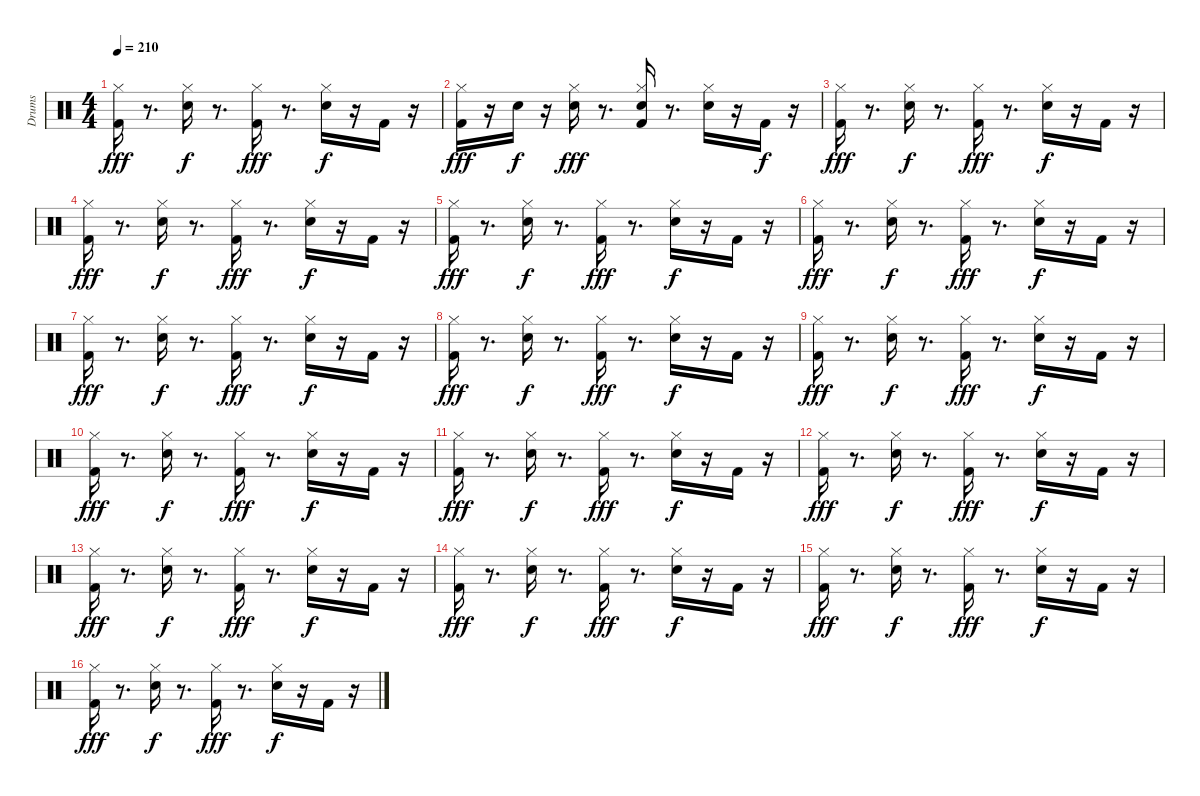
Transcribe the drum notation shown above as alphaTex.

\track ("Drums " "Drums ") {instrument percussion}
\staff {score}
\articulation defaults
\ts (4 4)
\tempo 210
\clef neutral
\ks c
("Kick (hit) 2" "Hi-Hat (closed)").16{dy fff} r.8{d} ("Snare (hit) 2" "Hi-Hat (closed)").16{dy f} r.8{d} ("Kick (hit) 2" "Hi-Hat (closed)").16{dy fff} r.8{d} ("Snare (hit) 2" "Hi-Hat (closed)").16{dy f} r.16 "Kick (hit) 2".16 r.16 |
("Kick (hit) 2" "Hi-Hat (closed)").16{dy fff} r.16 "Snare (hit) 2".16{dy f} r.16 ("Snare (hit) 2" "Hi-Hat (closed)").16{dy fff} r.8{d} ("Kick (hit) 2" "Snare (hit) 2" "Hi-Hat (closed)").16 r.8{d} ("Snare (hit) 2" "Hi-Hat (closed)").16 r.16 "Kick (hit) 2".16{dy f} r.16 |
("Kick (hit) 2" "Hi-Hat (closed)").16{dy fff} r.8{d} ("Snare (hit) 2" "Hi-Hat (closed)").16{dy f} r.8{d} ("Kick (hit) 2" "Hi-Hat (closed)").16{dy fff} r.8{d} ("Snare (hit) 2" "Hi-Hat (closed)").16{dy f} r.16 "Kick (hit) 2".16 r.16 |
("Kick (hit) 2" "Hi-Hat (closed)").16{dy fff} r.8{d} ("Snare (hit) 2" "Hi-Hat (closed)").16{dy f} r.8{d} ("Kick (hit) 2" "Hi-Hat (closed)").16{dy fff} r.8{d} ("Snare (hit) 2" "Hi-Hat (closed)").16{dy f} r.16 "Kick (hit) 2".16 r.16 |
("Kick (hit) 2" "Hi-Hat (closed)").16{dy fff} r.8{d} ("Snare (hit) 2" "Hi-Hat (closed)").16{dy f} r.8{d} ("Kick (hit) 2" "Hi-Hat (closed)").16{dy fff} r.8{d} ("Snare (hit) 2" "Hi-Hat (closed)").16{dy f} r.16 "Kick (hit) 2".16 r.16 |
("Kick (hit) 2" "Hi-Hat (closed)").16{dy fff} r.8{d} ("Snare (hit) 2" "Hi-Hat (closed)").16{dy f} r.8{d} ("Kick (hit) 2" "Hi-Hat (closed)").16{dy fff} r.8{d} ("Snare (hit) 2" "Hi-Hat (closed)").16{dy f} r.16 "Kick (hit) 2".16 r.16 |
("Kick (hit) 2" "Hi-Hat (closed)").16{dy fff} r.8{d} ("Snare (hit) 2" "Hi-Hat (closed)").16{dy f} r.8{d} ("Kick (hit) 2" "Hi-Hat (closed)").16{dy fff} r.8{d} ("Snare (hit) 2" "Hi-Hat (closed)").16{dy f} r.16 "Kick (hit) 2".16 r.16 |
("Kick (hit) 2" "Hi-Hat (closed)").16{dy fff} r.8{d} ("Snare (hit) 2" "Hi-Hat (closed)").16{dy f} r.8{d} ("Kick (hit) 2" "Hi-Hat (closed)").16{dy fff} r.8{d} ("Snare (hit) 2" "Hi-Hat (closed)").16{dy f} r.16 "Kick (hit) 2".16 r.16 |
("Kick (hit) 2" "Hi-Hat (closed)").16{dy fff} r.8{d} ("Snare (hit) 2" "Hi-Hat (closed)").16{dy f} r.8{d} ("Kick (hit) 2" "Hi-Hat (closed)").16{dy fff} r.8{d} ("Snare (hit) 2" "Hi-Hat (closed)").16{dy f} r.16 "Kick (hit) 2".16 r.16 |
("Kick (hit) 2" "Hi-Hat (closed)").16{dy fff} r.8{d} ("Snare (hit) 2" "Hi-Hat (closed)").16{dy f} r.8{d} ("Kick (hit) 2" "Hi-Hat (closed)").16{dy fff} r.8{d} ("Snare (hit) 2" "Hi-Hat (closed)").16{dy f} r.16 "Kick (hit) 2".16 r.16 |
("Kick (hit) 2" "Hi-Hat (closed)").16{dy fff} r.8{d} ("Snare (hit) 2" "Hi-Hat (closed)").16{dy f} r.8{d} ("Kick (hit) 2" "Hi-Hat (closed)").16{dy fff} r.8{d} ("Snare (hit) 2" "Hi-Hat (closed)").16{dy f} r.16 "Kick (hit) 2".16 r.16 |
("Kick (hit) 2" "Hi-Hat (closed)").16{dy fff} r.8{d} ("Snare (hit) 2" "Hi-Hat (closed)").16{dy f} r.8{d} ("Kick (hit) 2" "Hi-Hat (closed)").16{dy fff} r.8{d} ("Snare (hit) 2" "Hi-Hat (closed)").16{dy f} r.16 "Kick (hit) 2".16 r.16 |
("Kick (hit) 2" "Hi-Hat (closed)").16{dy fff} r.8{d} ("Snare (hit) 2" "Hi-Hat (closed)").16{dy f} r.8{d} ("Kick (hit) 2" "Hi-Hat (closed)").16{dy fff} r.8{d} ("Snare (hit) 2" "Hi-Hat (closed)").16{dy f} r.16 "Kick (hit) 2".16 r.16 |
("Kick (hit) 2" "Hi-Hat (closed)").16{dy fff} r.8{d} ("Snare (hit) 2" "Hi-Hat (closed)").16{dy f} r.8{d} ("Kick (hit) 2" "Hi-Hat (closed)").16{dy fff} r.8{d} ("Snare (hit) 2" "Hi-Hat (closed)").16{dy f} r.16 "Kick (hit) 2".16 r.16 |
("Kick (hit) 2" "Hi-Hat (closed)").16{dy fff} r.8{d} ("Snare (hit) 2" "Hi-Hat (closed)").16{dy f} r.8{d} ("Kick (hit) 2" "Hi-Hat (closed)").16{dy fff} r.8{d} ("Snare (hit) 2" "Hi-Hat (closed)").16{dy f} r.16 "Kick (hit) 2".16 r.16 |
("Kick (hit) 2" "Hi-Hat (closed)").16{dy fff} r.8{d} ("Snare (hit) 2" "Hi-Hat (closed)").16{dy f} r.8{d} ("Kick (hit) 2" "Hi-Hat (closed)").16{dy fff} r.8{d} ("Snare (hit) 2" "Hi-Hat (closed)").16{dy f} r.16 "Kick (hit) 2".16 r.16
